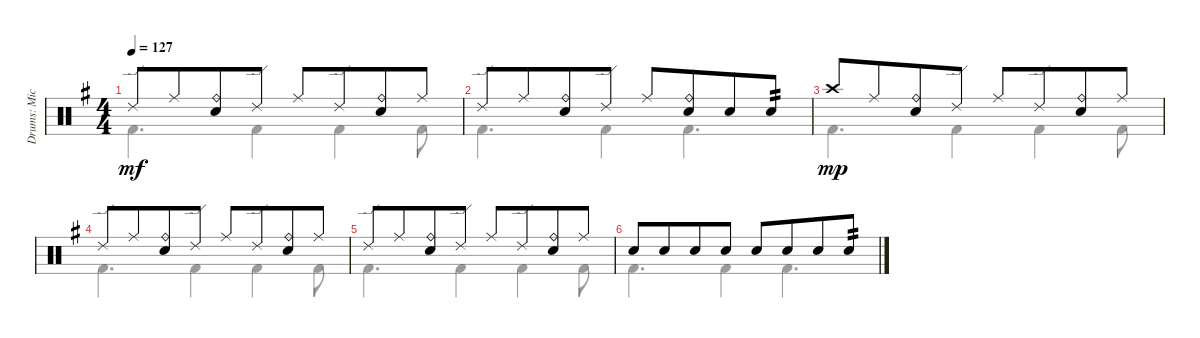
\track ("Drums: Mick" "Drums: Mic") {instrument percussion}
\staff {score}
\articulation defaults
\voice
\ts (4 4)
\tempo 127
\clef neutral
\ks g "Ride (edge) 2".8{dy mf} "Ride (middle)".8{beam merge}
("Ride (bell)" "Electric Snare (hit)").8 "Ride (edge) 2".8 "Ride (middle)".8 "Ride (edge) 2".8{beam merge} ("Ride (bell)" "Electric Snare (hit)").8 "Ride (middle)".8 |
"Ride (edge) 2".8 "Ride (middle)".8{beam merge} ("Ride (bell)" "Electric Snare (hit)").8 "Ride (edge) 2".8 "Ride (middle)".8{beam merge} ("Ride (bell)" "Electric Snare (hit)").8{beam merge} "Electric Snare (hit)".8 "Electric Snare (hit)".8{tp 2} |
"Crash high (hit)".8{dy mp volume 0} "Ride (middle)".8{beam merge} ("Ride (bell)" "Electric Snare (hit)").8 "Ride (edge) 2".8 "Ride (middle)".8 "Ride (edge) 2".8{beam merge} ("Ride (bell)" "Electric Snare (hit)").8 "Ride (middle)".8 |
"Ride (edge) 2".8 "Ride (middle)".8{beam merge} ("Ride (bell)" "Electric Snare (hit)").8 "Ride (edge) 2".8 "Ride (middle)".8 "Ride (edge) 2".8{beam merge} ("Ride (bell)" "Electric Snare (hit)").8 "Ride (middle)".8 |
"Ride (edge) 2".8 "Ride (middle)".8{beam merge} ("Ride (bell)" "Electric Snare (hit)").8 "Ride (edge) 2".8 "Ride (middle)".8 "Ride (edge) 2".8{beam merge} ("Ride (bell)" "Electric Snare (hit)").8 "Ride (middle)".8 |
"Electric Snare (hit)".8 "Electric Snare (hit)".8{beam merge} "Electric Snare (hit)".8 "Electric Snare (hit)".8 "Electric Snare (hit)".8{beam merge} "Electric Snare (hit)".8{beam merge} "Electric Snare (hit)".8 "Electric Snare (hit)".8{tp 2}
\voice
\clef neutral
\ottava regular
\simile none
\ks g "Kick (hit) 2".4{d dy mf} "Kick (hit) 2".4 "Kick (hit) 2".4 "Kick (hit) 2".8
|
"Kick (hit) 2".4{d} "Kick (hit) 2".4 "Kick (hit) 2".4{d} |
"Kick (hit) 2".4{d dy mp} "Kick (hit) 2".4 "Kick (hit) 2".4 "Kick (hit) 2".8 |
"Kick (hit) 2".4{d} "Kick (hit) 2".4 "Kick (hit) 2".4 "Kick (hit) 2".8 |
"Kick (hit) 2".4{d} "Kick (hit) 2".4 "Kick (hit) 2".4 "Kick (hit) 2".8 |
"Kick (hit) 2".4{d} "Kick (hit) 2".4 "Kick (hit) 2".4{d}
